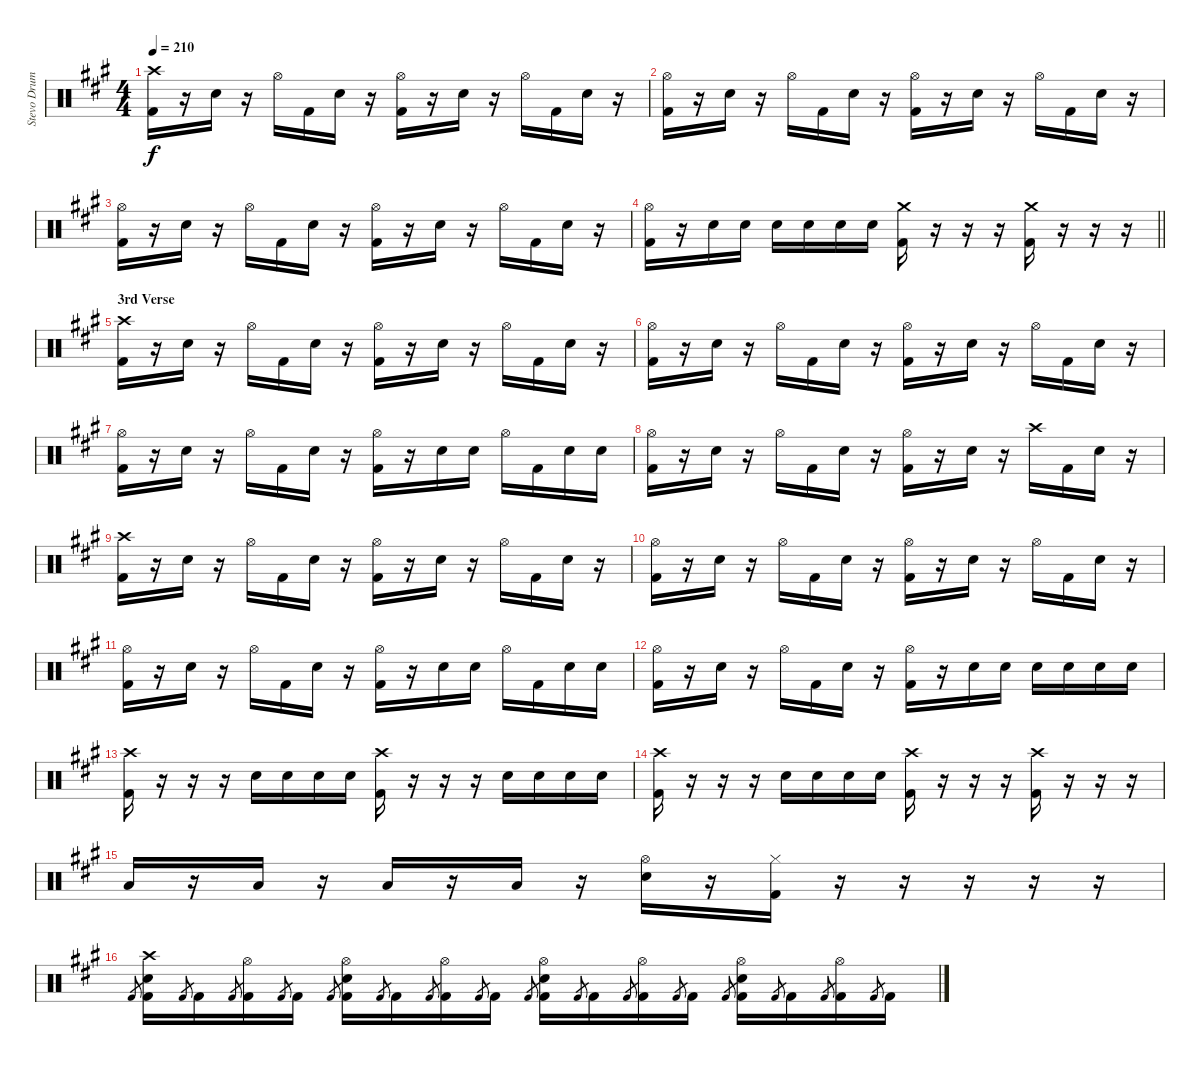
\track ("Stevo Drums" "Stevo Drum") {instrument percussion}
\staff {score}
\articulation defaults
\ts (4 4)
\tempo 210
\clef neutral
\ks a
("Crash high (hit)" "Kick (hit) 2").16{dy f} r.16 "Snare (hit) 2".16 r.16 "Hi-Hat (open)".16 "Kick (hit) 2".16 "Snare (hit) 2".16 r.16 ("Hi-Hat (open)" "Kick (hit) 2").16 r.16 "Snare (hit) 2".16 r.16 "Hi-Hat (open)".16 "Kick (hit) 2".16 "Snare (hit) 2".16 r.16 |
("Hi-Hat (open)" "Kick (hit) 2").16 r.16 "Snare (hit) 2".16 r.16 "Hi-Hat (open)".16 "Kick (hit) 2".16 "Snare (hit) 2".16 r.16 ("Hi-Hat (open)" "Kick (hit) 2").16 r.16 "Snare (hit) 2".16 r.16 "Hi-Hat (open)".16 "Kick (hit) 2".16 "Snare (hit) 2".16 r.16 |
("Hi-Hat (open)" "Kick (hit) 2").16 r.16 "Snare (hit) 2".16 r.16 "Hi-Hat (open)".16 "Kick (hit) 2".16 "Snare (hit) 2".16 r.16 ("Hi-Hat (open)" "Kick (hit) 2").16 r.16 "Snare (hit) 2".16 r.16 "Hi-Hat (open)".16 "Kick (hit) 2".16 "Snare (hit) 2".16 r.16 |
\barLineRight lightlight
("Hi-Hat (open)" "Kick (hit) 2").16 r.16 "Snare (hit) 2".16 "Snare (hit) 2".16 "Snare (hit) 2".16 "Snare (hit) 2".16 "Snare (hit) 2".16 "Snare (hit) 2".16 ("Crash medium (hit)" "Kick (hit) 2").16 r.16 r.16 r.16 ("Crash medium (hit)" "Kick (hit) 2").16 r.16 r.16 r.16 |
\section ("" "3rd Verse")
("Crash high (hit)" "Kick (hit) 2").16 r.16 "Snare (hit) 2".16 r.16 "Hi-Hat (open)".16 "Kick (hit) 2".16 "Snare (hit) 2".16 r.16 ("Hi-Hat (open)" "Kick (hit) 2").16 r.16 "Snare (hit) 2".16 r.16 "Hi-Hat (open)".16 "Kick (hit) 2".16 "Snare (hit) 2".16 r.16 |
("Hi-Hat (open)" "Kick (hit) 2").16 r.16 "Snare (hit) 2".16 r.16 "Hi-Hat (open)".16 "Kick (hit) 2".16 "Snare (hit) 2".16 r.16 ("Hi-Hat (open)" "Kick (hit) 2").16 r.16 "Snare (hit) 2".16 r.16 "Hi-Hat (open)".16 "Kick (hit) 2".16 "Snare (hit) 2".16 r.16 |
("Hi-Hat (open)" "Kick (hit) 2").16 r.16 "Snare (hit) 2".16 r.16 "Hi-Hat (open)".16 "Kick (hit) 2".16 "Snare (hit) 2".16 r.16 ("Hi-Hat (open)" "Kick (hit) 2").16 r.16 "Snare (hit) 2".16 "Snare (hit) 2".16 "Hi-Hat (open)".16 "Kick (hit) 2".16 "Snare (hit) 2".16 "Snare (hit) 2".16 |
("Hi-Hat (open)" "Kick (hit) 2").16 r.16 "Snare (hit) 2".16 r.16 "Hi-Hat (open)".16 "Kick (hit) 2".16 "Snare (hit) 2".16 r.16 ("Hi-Hat (open)" "Kick (hit) 2").16 r.16 "Snare (hit) 2".16 r.16 "Crash high (hit)".16 "Kick (hit) 2".16 "Snare (hit) 2".16 r.16 |
("Crash high (hit)" "Kick (hit) 2").16 r.16 "Snare (hit) 2".16 r.16 "Hi-Hat (open)".16 "Kick (hit) 2".16 "Snare (hit) 2".16 r.16 ("Hi-Hat (open)" "Kick (hit) 2").16 r.16 "Snare (hit) 2".16 r.16 "Hi-Hat (open)".16 "Kick (hit) 2".16 "Snare (hit) 2".16 r.16 |
("Hi-Hat (open)" "Kick (hit) 2").16 r.16 "Snare (hit) 2".16 r.16 "Hi-Hat (open)".16 "Kick (hit) 2".16 "Snare (hit) 2".16 r.16 ("Hi-Hat (open)" "Kick (hit) 2").16 r.16 "Snare (hit) 2".16 r.16 "Hi-Hat (open)".16 "Kick (hit) 2".16 "Snare (hit) 2".16 r.16 |
("Hi-Hat (open)" "Kick (hit) 2").16 r.16 "Snare (hit) 2".16 r.16 "Hi-Hat (open)".16 "Kick (hit) 2".16 "Snare (hit) 2".16 r.16 ("Hi-Hat (open)" "Kick (hit) 2").16 r.16 "Snare (hit) 2".16 "Snare (hit) 2".16 "Hi-Hat (open)".16 "Kick (hit) 2".16 "Snare (hit) 2".16 "Snare (hit) 2".16 |
("Hi-Hat (open)" "Kick (hit) 2").16 r.16 "Snare (hit) 2".16 r.16 "Hi-Hat (open)".16 "Kick (hit) 2".16 "Snare (hit) 2".16 r.16 ("Hi-Hat (open)" "Kick (hit) 2").16 r.16 "Snare (hit) 2".16 "Snare (hit) 2".16 "Snare (hit) 2".16 "Snare (hit) 2".16 "Snare (hit) 2".16 "Snare (hit) 2".16 |
("Crash high (hit)" "Kick (hit) 2").16 r.16 r.16 r.16 "Snare (hit) 2".16 "Snare (hit) 2".16 "Snare (hit) 2".16 "Snare (hit) 2".16 ("Crash high (hit)" "Kick (hit) 2").16 r.16 r.16 r.16 "Snare (hit) 2".16 "Snare (hit) 2".16 "Snare (hit) 2".16 "Snare (hit) 2".16 |
("Crash high (hit)" "Kick (hit) 2").16 r.16 r.16 r.16 "Snare (hit) 2".16 "Snare (hit) 2".16 "Snare (hit) 2".16 "Snare (hit) 2".16 ("Crash high (hit)" "Kick (hit) 2").16 r.16 r.16 r.16 ("Crash high (hit)" "Kick (hit) 2").16 r.16 r.16 r.16 |
"Low Floor Tom (hit)".16 r.16 "Low Floor Tom (hit)".16 r.16 "Low Floor Tom (hit)".16 r.16 "Low Floor Tom (hit)".16 r.16 ("Hi-Hat (open)" "Snare (hit) 2").16 r.16 ("Hi-Hat (closed)" "Kick (hit) 2").16 r.16 r.16 r.16 r.16 r.16 |
"Kick (hit) 2".8{gr} ("Crash high (hit)" "Snare (hit) 2" "Kick (hit) 2").16 "Kick (hit) 2".8{gr} "Kick (hit) 2".16 "Kick (hit) 2".8{gr} ("Hi-Hat (open)" "Kick (hit) 2").16 "Kick (hit) 2".8{gr} "Kick (hit) 2".16 "Kick (hit) 2".8{gr} ("Hi-Hat (open)" "Snare (hit) 2" "Kick (hit) 2").16 "Kick (hit) 2".8{gr} "Kick (hit) 2".16 "Kick (hit) 2".8{gr} ("Hi-Hat (open)" "Kick (hit) 2").16 "Kick (hit) 2".8{gr} "Kick (hit) 2".16 "Kick (hit) 2".8{gr} ("Hi-Hat (open)" "Snare (hit) 2" "Kick (hit) 2").16 "Kick (hit) 2".8{gr} "Kick (hit) 2".16 "Kick (hit) 2".8{gr} ("Hi-Hat (open)" "Kick (hit) 2").16 "Kick (hit) 2".8{gr} "Kick (hit) 2".16 "Kick (hit) 2".8{gr} ("Hi-Hat (open)" "Snare (hit) 2" "Kick (hit) 2").16 "Kick (hit) 2".8{gr} "Kick (hit) 2".16 "Kick (hit) 2".8{gr} ("Hi-Hat (open)" "Kick (hit) 2").16 "Kick (hit) 2".8{gr} "Kick (hit) 2".16
